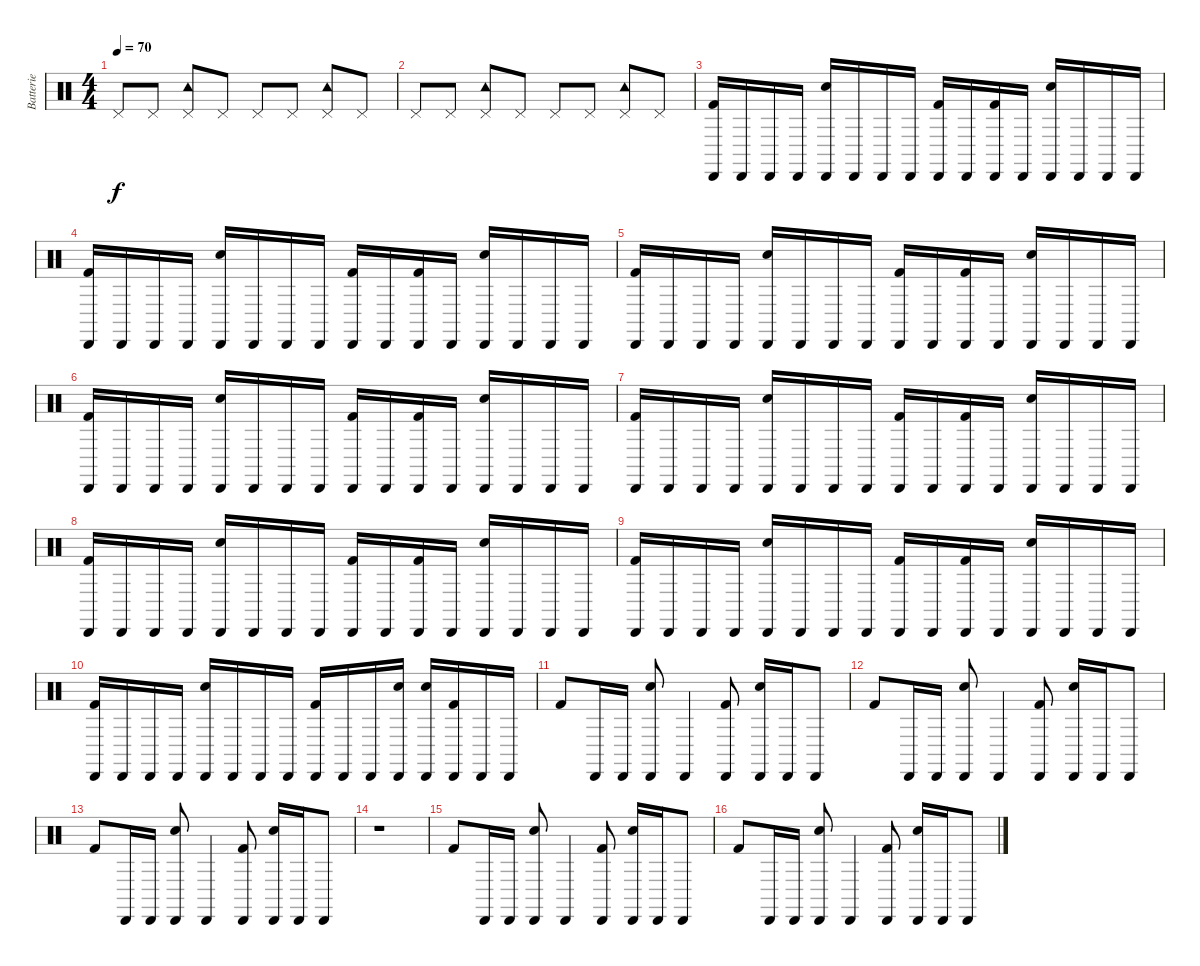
\track ("Batterie" "Batterie") {instrument percussion}
\staff {score}
\articulation defaults
\ts (4 4)
\tempo 70
\clef neutral
\ks c "Pedal Hi-Hat (hit)".8{dy f} "Pedal Hi-Hat (hit)".8
("Tambourine (hit)" "Pedal Hi-Hat (hit)").8 "Pedal Hi-Hat (hit)".8 "Pedal Hi-Hat (hit)".8 "Pedal Hi-Hat (hit)".8 ("Tambourine (hit)" "Pedal Hi-Hat (hit)").8 "Pedal Hi-Hat (hit)".8 |
"Pedal Hi-Hat (hit)".8 "Pedal Hi-Hat (hit)".8 ("Tambourine (hit)" "Pedal Hi-Hat (hit)").8 "Pedal Hi-Hat (hit)".8 "Pedal Hi-Hat (hit)".8 "Pedal Hi-Hat (hit)".8 ("Tambourine (hit)" "Pedal Hi-Hat (hit)").8 "Pedal Hi-Hat (hit)".8 |
("Cabasa (hit)" "Kick (hit) 2").16 "Cabasa (hit)".16 "Cabasa (hit)".16 "Cabasa (hit)".16 ("Cabasa (hit)" "Snare (hit) 2").16 "Cabasa (hit)".16 "Cabasa (hit)".16 "Cabasa (hit)".16 ("Cabasa (hit)" "Kick (hit) 2").16 "Cabasa (hit)".16 ("Cabasa (hit)" "Kick (hit) 2").16 "Cabasa (hit)".16 ("Cabasa (hit)" "Snare (hit) 2").16 "Cabasa (hit)".16 "Cabasa (hit)".16 "Cabasa (hit)".16 |
("Cabasa (hit)" "Kick (hit) 2").16 "Cabasa (hit)".16 "Cabasa (hit)".16 "Cabasa (hit)".16 ("Cabasa (hit)" "Snare (hit) 2").16 "Cabasa (hit)".16 "Cabasa (hit)".16 "Cabasa (hit)".16 ("Cabasa (hit)" "Kick (hit) 2").16 "Cabasa (hit)".16 ("Cabasa (hit)" "Kick (hit) 2").16 "Cabasa (hit)".16 ("Cabasa (hit)" "Snare (hit) 2").16 "Cabasa (hit)".16 "Cabasa (hit)".16 "Cabasa (hit)".16 |
("Cabasa (hit)" "Kick (hit) 2").16 "Cabasa (hit)".16 "Cabasa (hit)".16 "Cabasa (hit)".16 ("Cabasa (hit)" "Snare (hit) 2").16 "Cabasa (hit)".16 "Cabasa (hit)".16 "Cabasa (hit)".16 ("Cabasa (hit)" "Kick (hit) 2").16 "Cabasa (hit)".16 ("Cabasa (hit)" "Kick (hit) 2").16 "Cabasa (hit)".16 ("Cabasa (hit)" "Snare (hit) 2").16 "Cabasa (hit)".16 "Cabasa (hit)".16 "Cabasa (hit)".16 |
("Cabasa (hit)" "Kick (hit) 2").16 "Cabasa (hit)".16 "Cabasa (hit)".16 "Cabasa (hit)".16 ("Cabasa (hit)" "Snare (hit) 2").16 "Cabasa (hit)".16 "Cabasa (hit)".16 "Cabasa (hit)".16 ("Cabasa (hit)" "Kick (hit) 2").16 "Cabasa (hit)".16 ("Cabasa (hit)" "Kick (hit) 2").16 "Cabasa (hit)".16 ("Cabasa (hit)" "Snare (hit) 2").16 "Cabasa (hit)".16 "Cabasa (hit)".16 "Cabasa (hit)".16 |
("Cabasa (hit)" "Kick (hit) 2").16 "Cabasa (hit)".16 "Cabasa (hit)".16 "Cabasa (hit)".16 ("Cabasa (hit)" "Snare (hit) 2").16 "Cabasa (hit)".16 "Cabasa (hit)".16 "Cabasa (hit)".16 ("Cabasa (hit)" "Kick (hit) 2").16 "Cabasa (hit)".16 ("Cabasa (hit)" "Kick (hit) 2").16 "Cabasa (hit)".16 ("Cabasa (hit)" "Snare (hit) 2").16 "Cabasa (hit)".16 "Cabasa (hit)".16 "Cabasa (hit)".16 |
("Cabasa (hit)" "Kick (hit) 2").16 "Cabasa (hit)".16 "Cabasa (hit)".16 "Cabasa (hit)".16 ("Cabasa (hit)" "Snare (hit) 2").16 "Cabasa (hit)".16 "Cabasa (hit)".16 "Cabasa (hit)".16 ("Cabasa (hit)" "Kick (hit) 2").16 "Cabasa (hit)".16 ("Cabasa (hit)" "Kick (hit) 2").16 "Cabasa (hit)".16 ("Cabasa (hit)" "Snare (hit) 2").16 "Cabasa (hit)".16 "Cabasa (hit)".16 "Cabasa (hit)".16 |
("Cabasa (hit)" "Kick (hit) 2").16 "Cabasa (hit)".16 "Cabasa (hit)".16 "Cabasa (hit)".16 ("Cabasa (hit)" "Snare (hit) 2").16 "Cabasa (hit)".16 "Cabasa (hit)".16 "Cabasa (hit)".16 ("Cabasa (hit)" "Kick (hit) 2").16 "Cabasa (hit)".16 ("Cabasa (hit)" "Kick (hit) 2").16 "Cabasa (hit)".16 ("Cabasa (hit)" "Snare (hit) 2").16 "Cabasa (hit)".16 "Cabasa (hit)".16 "Cabasa (hit)".16 |
("Cabasa (hit)" "Kick (hit) 2").16 "Cabasa (hit)".16 "Cabasa (hit)".16 "Cabasa (hit)".16 ("Cabasa (hit)" "Snare (hit) 2").16 "Cabasa (hit)".16 "Cabasa (hit)".16 "Cabasa (hit)".16 ("Cabasa (hit)" "Kick (hit) 2").16 "Cabasa (hit)".16 "Cabasa (hit)".16 ("Cabasa (hit)" "Snare (hit) 2").16 ("Cabasa (hit)" "Snare (hit) 2").16 ("Cabasa (hit)" "Kick (hit) 2").16 "Cabasa (hit)".16 "Cabasa (hit)".16 |
"Kick (hit) 2".8 "Cabasa (hit)".16 "Cabasa (hit)".16 ("Cabasa (hit)" "Snare (hit) 2").8 "Cabasa (hit)".4 ("Cabasa (hit)" "Kick (hit) 2").8 ("Cabasa (hit)" "Snare (hit) 2").16 "Cabasa (hit)".16 "Cabasa (hit)".8 |
"Kick (hit) 2".8 "Cabasa (hit)".16 "Cabasa (hit)".16 ("Cabasa (hit)" "Snare (hit) 2").8 "Cabasa (hit)".4 ("Cabasa (hit)" "Kick (hit) 2").8 ("Cabasa (hit)" "Snare (hit) 2").16 "Cabasa (hit)".16 "Cabasa (hit)".8 |
"Kick (hit) 2".8 "Cabasa (hit)".16 "Cabasa (hit)".16 ("Cabasa (hit)" "Snare (hit) 2").8 "Cabasa (hit)".4 ("Cabasa (hit)" "Kick (hit) 2").8 ("Cabasa (hit)" "Snare (hit) 2").16 "Cabasa (hit)".16 "Cabasa (hit)".8 |
r.1 |
"Kick (hit) 2".8 "Cabasa (hit)".16 "Cabasa (hit)".16 ("Cabasa (hit)" "Snare (hit) 2").8 "Cabasa (hit)".4 ("Cabasa (hit)" "Kick (hit) 2").8 ("Cabasa (hit)" "Snare (hit) 2").16 "Cabasa (hit)".16 "Cabasa (hit)".8 |
"Kick (hit) 2".8 "Cabasa (hit)".16 "Cabasa (hit)".16 ("Cabasa (hit)" "Snare (hit) 2").8 "Cabasa (hit)".4 ("Cabasa (hit)" "Kick (hit) 2").8 ("Cabasa (hit)" "Snare (hit) 2").16 "Cabasa (hit)".16 "Cabasa (hit)".8
